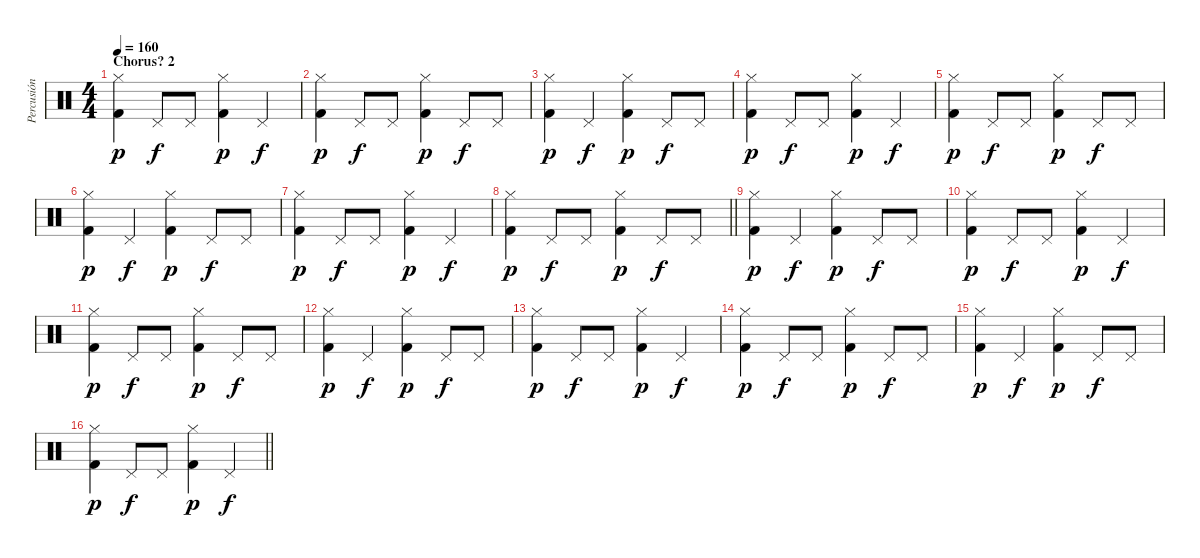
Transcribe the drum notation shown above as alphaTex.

\track ("Percusión" "Percusión") {instrument percussion}
\staff {score}
\articulation defaults
\ts (4 4)
\section ("" "Chorus? 2")
\tempo 160
\clef neutral
\ks c
("Kick (hit) 2" "Hi-Hat (closed)").4{dy p} "Pedal Hi-Hat (hit)".8{dy f} "Pedal Hi-Hat (hit)".8 ("Kick (hit) 2" "Hi-Hat (closed)").4{dy p} "Pedal Hi-Hat (hit)".4{dy f} |
("Kick (hit) 2" "Hi-Hat (closed)").4{dy p} "Pedal Hi-Hat (hit)".8{dy f} "Pedal Hi-Hat (hit)".8 ("Kick (hit) 2" "Hi-Hat (closed)").4{dy p} "Pedal Hi-Hat (hit)".8{dy f} "Pedal Hi-Hat (hit)".8 |
("Kick (hit) 2" "Hi-Hat (closed)").4{dy p} "Pedal Hi-Hat (hit)".4{dy f} ("Kick (hit) 2" "Hi-Hat (closed)").4{dy p} "Pedal Hi-Hat (hit)".8{dy f} "Pedal Hi-Hat (hit)".8 |
("Kick (hit) 2" "Hi-Hat (closed)").4{dy p} "Pedal Hi-Hat (hit)".8{dy f} "Pedal Hi-Hat (hit)".8 ("Kick (hit) 2" "Hi-Hat (closed)").4{dy p} "Pedal Hi-Hat (hit)".4{dy f} |
("Kick (hit) 2" "Hi-Hat (closed)").4{dy p} "Pedal Hi-Hat (hit)".8{dy f} "Pedal Hi-Hat (hit)".8 ("Kick (hit) 2" "Hi-Hat (closed)").4{dy p} "Pedal Hi-Hat (hit)".8{dy f} "Pedal Hi-Hat (hit)".8 |
("Kick (hit) 2" "Hi-Hat (closed)").4{dy p} "Pedal Hi-Hat (hit)".4{dy f} ("Kick (hit) 2" "Hi-Hat (closed)").4{dy p} "Pedal Hi-Hat (hit)".8{dy f} "Pedal Hi-Hat (hit)".8 |
("Kick (hit) 2" "Hi-Hat (closed)").4{dy p} "Pedal Hi-Hat (hit)".8{dy f} "Pedal Hi-Hat (hit)".8 ("Kick (hit) 2" "Hi-Hat (closed)").4{dy p} "Pedal Hi-Hat (hit)".4{dy f} |
\barLineRight lightlight
("Kick (hit) 2" "Hi-Hat (closed)").4{dy p} "Pedal Hi-Hat (hit)".8{dy f} "Pedal Hi-Hat (hit)".8 ("Kick (hit) 2" "Hi-Hat (closed)").4{dy p} "Pedal Hi-Hat (hit)".8{dy f} "Pedal Hi-Hat (hit)".8 |
("Kick (hit) 2" "Hi-Hat (closed)").4{dy p} "Pedal Hi-Hat (hit)".4{dy f} ("Kick (hit) 2" "Hi-Hat (closed)").4{dy p} "Pedal Hi-Hat (hit)".8{dy f} "Pedal Hi-Hat (hit)".8 |
("Kick (hit) 2" "Hi-Hat (closed)").4{dy p} "Pedal Hi-Hat (hit)".8{dy f} "Pedal Hi-Hat (hit)".8 ("Kick (hit) 2" "Hi-Hat (closed)").4{dy p} "Pedal Hi-Hat (hit)".4{dy f} |
("Kick (hit) 2" "Hi-Hat (closed)").4{dy p} "Pedal Hi-Hat (hit)".8{dy f} "Pedal Hi-Hat (hit)".8 ("Kick (hit) 2" "Hi-Hat (closed)").4{dy p} "Pedal Hi-Hat (hit)".8{dy f} "Pedal Hi-Hat (hit)".8 |
("Kick (hit) 2" "Hi-Hat (closed)").4{dy p} "Pedal Hi-Hat (hit)".4{dy f} ("Kick (hit) 2" "Hi-Hat (closed)").4{dy p} "Pedal Hi-Hat (hit)".8{dy f} "Pedal Hi-Hat (hit)".8 |
("Kick (hit) 2" "Hi-Hat (closed)").4{dy p} "Pedal Hi-Hat (hit)".8{dy f} "Pedal Hi-Hat (hit)".8 ("Kick (hit) 2" "Hi-Hat (closed)").4{dy p} "Pedal Hi-Hat (hit)".4{dy f} |
("Kick (hit) 2" "Hi-Hat (closed)").4{dy p} "Pedal Hi-Hat (hit)".8{dy f} "Pedal Hi-Hat (hit)".8 ("Kick (hit) 2" "Hi-Hat (closed)").4{dy p} "Pedal Hi-Hat (hit)".8{dy f} "Pedal Hi-Hat (hit)".8 |
("Kick (hit) 2" "Hi-Hat (closed)").4{dy p} "Pedal Hi-Hat (hit)".4{dy f} ("Kick (hit) 2" "Hi-Hat (closed)").4{dy p} "Pedal Hi-Hat (hit)".8{dy f} "Pedal Hi-Hat (hit)".8 |
\barLineRight lightlight
("Kick (hit) 2" "Hi-Hat (closed)").4{dy p} "Pedal Hi-Hat (hit)".8{dy f} "Pedal Hi-Hat (hit)".8 ("Kick (hit) 2" "Hi-Hat (closed)").4{dy p} "Pedal Hi-Hat (hit)".4{dy f}
